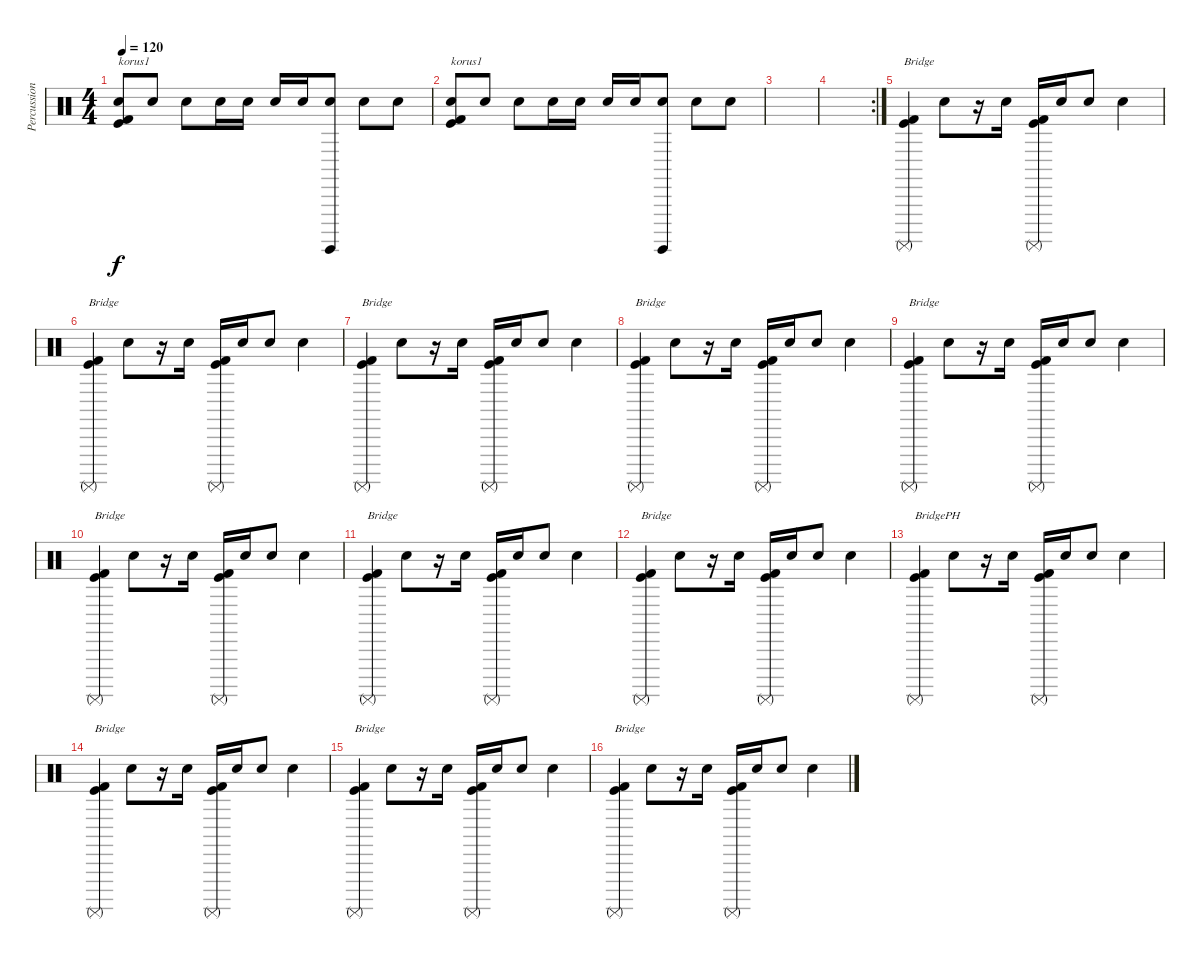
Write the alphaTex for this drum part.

\track ("Percussion" "Percussion") {instrument percussion}
\staff {score}
\articulation defaults
\ts (4 4)
\tempo 120
\clef neutral
\ks c
("Hand Clap (hit)" "Kick (hit) 2" "Kick (hit)").8{txt "korus1" dy f} "Hand Clap (hit)".8 "Hand Clap (hit)".8 "Hand Clap (hit)".16 "Hand Clap (hit)".16 "Hand Clap (hit)".16 "Hand Clap (hit)".16 ("Hand Clap (hit)" "Surdo (hit)").8 "Hand Clap (hit)".8 "Hand Clap (hit)".8 |
("Hand Clap (hit)" "Kick (hit) 2" "Kick (hit)").8{txt "korus1"} "Hand Clap (hit)".8 "Hand Clap (hit)".8 "Hand Clap (hit)".16 "Hand Clap (hit)".16 "Hand Clap (hit)".16 "Hand Clap (hit)".16 ("Hand Clap (hit)" "Surdo (hit)").8 "Hand Clap (hit)".8 "Hand Clap (hit)".8 |
|
\rc 2
|
("Surdo (mute)" "Kick (hit)" "Kick (hit) 2").4{txt "Bridge"} "Hand Clap (hit)".8 r.16 "Hand Clap (hit)".16 ("Surdo (mute)" "Kick (hit) 2" "Kick (hit)").16 "Hand Clap (hit)".16 "Hand Clap (hit)".8 "Hand Clap (hit)".4 |
("Surdo (mute)" "Kick (hit)" "Kick (hit) 2").4{txt "Bridge"} "Hand Clap (hit)".8 r.16 "Hand Clap (hit)".16 ("Surdo (mute)" "Kick (hit) 2" "Kick (hit)").16 "Hand Clap (hit)".16 "Hand Clap (hit)".8 "Hand Clap (hit)".4 |
("Surdo (mute)" "Kick (hit)" "Kick (hit) 2").4{txt "Bridge"} "Hand Clap (hit)".8 r.16 "Hand Clap (hit)".16 ("Surdo (mute)" "Kick (hit) 2" "Kick (hit)").16 "Hand Clap (hit)".16 "Hand Clap (hit)".8 "Hand Clap (hit)".4 |
("Surdo (mute)" "Kick (hit)" "Kick (hit) 2").4{txt "Bridge"} "Hand Clap (hit)".8 r.16 "Hand Clap (hit)".16 ("Surdo (mute)" "Kick (hit) 2" "Kick (hit)").16 "Hand Clap (hit)".16 "Hand Clap (hit)".8 "Hand Clap (hit)".4 |
("Surdo (mute)" "Kick (hit)" "Kick (hit) 2").4{txt "Bridge"} "Hand Clap (hit)".8 r.16 "Hand Clap (hit)".16 ("Surdo (mute)" "Kick (hit) 2" "Kick (hit)").16 "Hand Clap (hit)".16 "Hand Clap (hit)".8 "Hand Clap (hit)".4 |
("Surdo (mute)" "Kick (hit)" "Kick (hit) 2").4{txt "Bridge"} "Hand Clap (hit)".8 r.16 "Hand Clap (hit)".16 ("Surdo (mute)" "Kick (hit) 2" "Kick (hit)").16 "Hand Clap (hit)".16 "Hand Clap (hit)".8 "Hand Clap (hit)".4 |
("Surdo (mute)" "Kick (hit)" "Kick (hit) 2").4{txt "Bridge"} "Hand Clap (hit)".8 r.16 "Hand Clap (hit)".16 ("Surdo (mute)" "Kick (hit) 2" "Kick (hit)").16 "Hand Clap (hit)".16 "Hand Clap (hit)".8 "Hand Clap (hit)".4 |
("Surdo (mute)" "Kick (hit)" "Kick (hit) 2").4{txt "Bridge"} "Hand Clap (hit)".8 r.16 "Hand Clap (hit)".16 ("Surdo (mute)" "Kick (hit) 2" "Kick (hit)").16 "Hand Clap (hit)".16 "Hand Clap (hit)".8 "Hand Clap (hit)".4 |
("Surdo (mute)" "Kick (hit)" "Kick (hit) 2").4{txt "BridgePH"} "Hand Clap (hit)".8 r.16 "Hand Clap (hit)".16 ("Surdo (mute)" "Kick (hit) 2" "Kick (hit)").16 "Hand Clap (hit)".16 "Hand Clap (hit)".8 "Hand Clap (hit)".4 |
("Surdo (mute)" "Kick (hit)" "Kick (hit) 2").4{txt "Bridge"} "Hand Clap (hit)".8 r.16 "Hand Clap (hit)".16 ("Surdo (mute)" "Kick (hit) 2" "Kick (hit)").16 "Hand Clap (hit)".16 "Hand Clap (hit)".8 "Hand Clap (hit)".4 |
("Surdo (mute)" "Kick (hit)" "Kick (hit) 2").4{txt "Bridge"} "Hand Clap (hit)".8 r.16 "Hand Clap (hit)".16 ("Surdo (mute)" "Kick (hit) 2" "Kick (hit)").16 "Hand Clap (hit)".16 "Hand Clap (hit)".8 "Hand Clap (hit)".4 |
("Surdo (mute)" "Kick (hit)" "Kick (hit) 2").4{txt "Bridge"} "Hand Clap (hit)".8 r.16 "Hand Clap (hit)".16 ("Surdo (mute)" "Kick (hit) 2" "Kick (hit)").16 "Hand Clap (hit)".16 "Hand Clap (hit)".8 "Hand Clap (hit)".4
